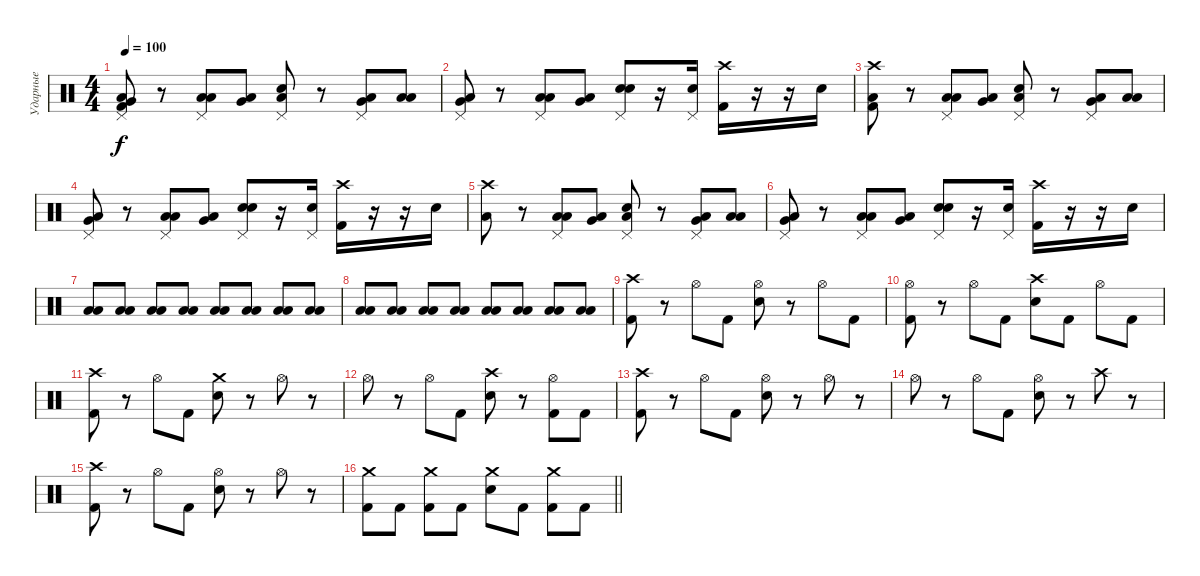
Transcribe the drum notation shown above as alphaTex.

\track ("Ударные" "Ударные") {instrument percussion}
\staff {score}
\articulation defaults
\ts (4 4)
\section ("" "")
\tempo 100
\clef neutral
\ks c
("Pedal Hi-Hat (hit)" "Very Low Tom (hit)" "Low Floor Tom (hit)" "Kick (hit) 2").8{dy f} r.8 ("Pedal Hi-Hat (hit)" "Low Tom (hit)" "Low Floor Tom (hit)").8 ("Very Low Tom (hit)" "Low Floor Tom (hit)").8 ("Pedal Hi-Hat (hit)" "Electric Snare (hit)" "Low Floor Tom (hit)").8 r.8 ("Pedal Hi-Hat (hit)" "Very Low Tom (hit)" "Low Floor Tom (hit)").8 ("Low Tom (hit)" "Low Floor Tom (hit)").8 |
("Pedal Hi-Hat (hit)" "Very Low Tom (hit)" "Low Floor Tom (hit)").8 r.8 ("Pedal Hi-Hat (hit)" "Low Tom (hit)" "Low Floor Tom (hit)").8 ("Very Low Tom (hit)" "Low Floor Tom (hit)").8 ("Pedal Hi-Hat (hit)" "Electric Snare (hit)" "Snare (hit)").8 r.16 ("Pedal Hi-Hat (hit)" "Electric Snare (hit)").16 ("Crash high (hit)" "Kick (hit) 2").16 r.16 r.16 "Electric Snare (hit)".16 |
("Crash high (hit)" "Low Floor Tom (hit)" "Kick (hit) 2").8 r.8 ("Pedal Hi-Hat (hit)" "Low Tom (hit)" "Low Floor Tom (hit)").8 ("Very Low Tom (hit)" "Low Floor Tom (hit)").8 ("Pedal Hi-Hat (hit)" "Electric Snare (hit)" "Low Floor Tom (hit)").8 r.8 ("Pedal Hi-Hat (hit)" "Very Low Tom (hit)" "Low Floor Tom (hit)").8 ("Low Tom (hit)" "Low Floor Tom (hit)").8 |
("Pedal Hi-Hat (hit)" "Very Low Tom (hit)" "Low Floor Tom (hit)").8 r.8 ("Pedal Hi-Hat (hit)" "Low Tom (hit)" "Low Floor Tom (hit)").8 ("Very Low Tom (hit)" "Low Floor Tom (hit)").8 ("Pedal Hi-Hat (hit)" "Electric Snare (hit)" "Snare (hit)").8 r.16 ("Pedal Hi-Hat (hit)" "Electric Snare (hit)").16 ("Crash high (hit)" "Kick (hit) 2").16 r.16 r.16 "Electric Snare (hit)".16 |
("Crash high (hit)" "Low Floor Tom (hit)").8 r.8 ("Pedal Hi-Hat (hit)" "Low Tom (hit)" "Low Floor Tom (hit)").8 ("Very Low Tom (hit)" "Low Floor Tom (hit)").8 ("Pedal Hi-Hat (hit)" "Electric Snare (hit)" "Low Floor Tom (hit)").8 r.8 ("Pedal Hi-Hat (hit)" "Very Low Tom (hit)" "Low Floor Tom (hit)").8 ("Low Tom (hit)" "Low Floor Tom (hit)").8 |
("Pedal Hi-Hat (hit)" "Very Low Tom (hit)" "Low Floor Tom (hit)").8 r.8 ("Pedal Hi-Hat (hit)" "Low Tom (hit)" "Low Floor Tom (hit)").8 ("Very Low Tom (hit)" "Low Floor Tom (hit)").8 ("Pedal Hi-Hat (hit)" "Electric Snare (hit)" "Snare (hit)").8 r.16 ("Pedal Hi-Hat (hit)" "Electric Snare (hit)").16 ("Crash high (hit)" "Kick (hit) 2").16 r.16 r.16 "Electric Snare (hit)".16 |
("Low Tom (hit)" "Low Floor Tom (hit)").8 ("Low Tom (hit)" "Low Floor Tom (hit)").8 ("Low Tom (hit)" "Low Floor Tom (hit)").8 ("Low Tom (hit)" "Low Floor Tom (hit)").8 ("Low Tom (hit)" "Low Floor Tom (hit)").8 ("Low Tom (hit)" "Low Floor Tom (hit)").8 ("Low Tom (hit)" "Low Floor Tom (hit)").8 ("Low Tom (hit)" "Low Floor Tom (hit)").8 |
("Low Tom (hit)" "Low Floor Tom (hit)").8 ("Low Tom (hit)" "Low Floor Tom (hit)").8 ("Low Tom (hit)" "Low Floor Tom (hit)").8 ("Low Tom (hit)" "Low Floor Tom (hit)").8 ("Low Tom (hit)" "Low Floor Tom (hit)").8 ("Low Tom (hit)" "Low Floor Tom (hit)").8 ("Low Tom (hit)" "Low Floor Tom (hit)").8 ("Low Tom (hit)" "Low Floor Tom (hit)").8 |
("Crash high (hit)" "Kick (hit) 2").8 r.8 "Hi-Hat (open)".8 "Kick (hit) 2".8 ("Hi-Hat (open)" "Electric Snare (hit)").8 r.8 "Hi-Hat (open)".8 "Kick (hit) 2".8 |
("Hi-Hat (open)" "Kick (hit) 2").8 r.8 "Hi-Hat (open)".8 "Kick (hit) 2".8 ("Crash high (hit)" "Electric Snare (hit)").8 "Kick (hit) 2".8 "Hi-Hat (open)".8 "Kick (hit) 2".8 |
("Crash high (hit)" "Kick (hit) 2").8 r.8 "Hi-Hat (open)".8 "Kick (hit) 2".8 ("Crash medium (hit)" "Electric Snare (hit)").8 r.8 "Hi-Hat (open)".8 r.8 |
"Hi-Hat (open)".8 r.8 "Hi-Hat (open)".8 "Kick (hit) 2".8 ("Crash high (hit)" "Electric Snare (hit)").8 r.8 ("Hi-Hat (open)" "Kick (hit) 2").8 "Kick (hit) 2".8 |
("Crash high (hit)" "Kick (hit) 2").8 r.8 "Hi-Hat (open)".8 "Kick (hit) 2".8 ("Hi-Hat (open)" "Electric Snare (hit)").8 r.8 "Hi-Hat (open)".8 r.8 |
"Hi-Hat (open)".8 r.8 "Hi-Hat (open)".8 "Kick (hit) 2".8 ("Hi-Hat (open)" "Electric Snare (hit)").8 r.8 "Crash high (hit)".8 r.8 |
("Crash high (hit)" "Kick (hit) 2").8 r.8 "Hi-Hat (open)".8 "Kick (hit) 2".8 ("Hi-Hat (open)" "Electric Snare (hit)").8 r.8 "Hi-Hat (open)".8 r.8 |
\barLineRight lightlight
("Crash medium (hit)" "Kick (hit) 2").8 "Kick (hit) 2".8 ("Crash medium (hit)" "Kick (hit) 2").8 "Kick (hit) 2".8 ("Crash medium (hit)" "Electric Snare (hit)").8 "Kick (hit) 2".8 ("Crash medium (hit)" "Kick (hit) 2").8 "Kick (hit) 2".8
